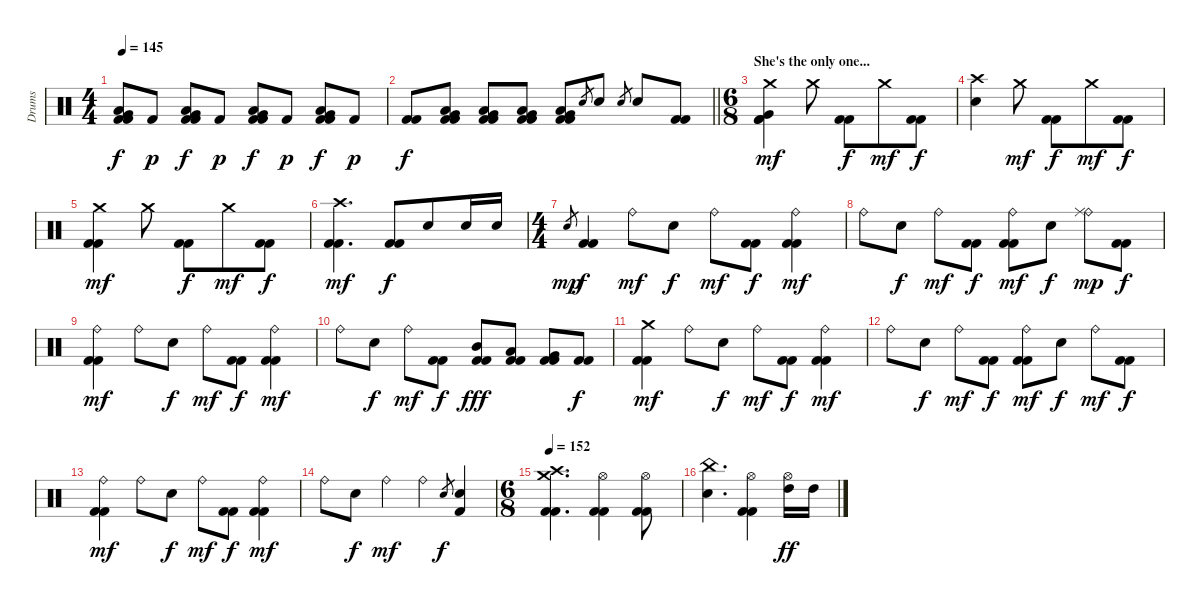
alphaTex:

\track ("Drums" "Drums") {instrument percussion}
\staff {score}
\articulation defaults
\ts (4 4)
\tempo 145
\clef neutral
\ks c
("Very Low Tom (hit)" "Low Floor Tom (hit)" "Kick (hit) 2" "Kick (hit) 2").8{dy f} "Kick (hit) 2".8{dy p} ("Very Low Tom (hit)" "Low Floor Tom (hit)" "Kick (hit) 2" "Kick (hit) 2").8{dy f} "Kick (hit) 2".8{dy p} ("Very Low Tom (hit)" "Low Floor Tom (hit)" "Kick (hit) 2" "Kick (hit) 2").8{dy f} "Kick (hit) 2".8{dy p} ("Very Low Tom (hit)" "Low Floor Tom (hit)" "Kick (hit) 2" "Kick (hit) 2").8{dy f} "Kick (hit) 2".8{dy p} |
\barLineRight lightlight
("Kick (hit) 2" "Kick (hit) 2").8{dy f} ("Very Low Tom (hit)" "Low Floor Tom (hit)" "Kick (hit) 2" "Kick (hit) 2").8 ("Very Low Tom (hit)" "Low Floor Tom (hit)" "Kick (hit) 2" "Kick (hit) 2").8 ("Very Low Tom (hit)" "Low Floor Tom (hit)" "Kick (hit) 2" "Kick (hit) 2").8 ("Very Low Tom (hit)" "Low Floor Tom (hit)" "Kick (hit) 2" "Kick (hit) 2").8 "Electric Snare (hit)".8{gr} "Electric Snare (hit)".8 "Electric Snare (hit)".8{gr} "Electric Snare (hit)".8 ("Kick (hit) 2" "Kick (hit) 2").8 |
\ts (6 8)
\section ("" "She's the only one...")
("Crash medium (hit)" "Very Low Tom (hit)" "Kick (hit) 2" "Kick (hit) 2").4{dy mf} "Crash medium (hit)".8 ("Kick (hit) 2" "Kick (hit) 2").8{dy f} "Crash medium (hit)".8{dy mf} ("Kick (hit) 2" "Kick (hit) 2").8{dy f} |
("Crash high (hit)" "Electric Snare (hit)").4 "Crash medium (hit)".8{dy mf} ("Kick (hit) 2" "Kick (hit) 2").8{dy f} "Crash medium (hit)".8{dy mf} ("Kick (hit) 2" "Kick (hit) 2").8{dy f} |
("Crash medium (hit)" "Kick (hit) 2" "Kick (hit) 2").4{dy mf} "Crash medium (hit)".8 ("Kick (hit) 2" "Kick (hit) 2").8{dy f} "Crash medium (hit)".8{dy mf} ("Kick (hit) 2" "Kick (hit) 2").8{dy f} |
("Crash high (hit)" "Kick (hit) 2" "Kick (hit) 2").4{d dy mf} ("Kick (hit) 2" "Kick (hit) 2").8{dy f} "Electric Snare (hit)".8 "Electric Snare (hit)".16 "Electric Snare (hit)".16 |
\ts (4 4)
"Electric Snare (hit)".8{gr dy mp} ("Kick (hit) 2" "Kick (hit) 2").4{dy f} "Ride (bell)".8{dy mf} "Electric Snare (hit)".8{dy f} "Ride (bell)".8{dy mf} ("Kick (hit) 2" "Kick (hit) 2").8{dy f} ("Ride (bell)" "Kick (hit) 2" "Kick (hit) 2").4{dy mf} |
"Ride (bell)".8 "Electric Snare (hit)".8{dy f} "Ride (bell)".8{dy mf} ("Kick (hit) 2" "Kick (hit) 2").8{dy f} ("Ride (bell)" "Kick (hit) 2" "Kick (hit) 2").8{dy mf} "Electric Snare (hit)".8{dy f} ("Ride (bell)" "Ride (middle)").8{dy mp} ("Kick (hit) 2" "Kick (hit) 2").8{dy f} |
("Ride (bell)" "Kick (hit) 2" "Kick (hit) 2").4{dy mf} "Ride (bell)".8 "Electric Snare (hit)".8{dy f} "Ride (bell)".8{dy mf} ("Kick (hit) 2" "Kick (hit) 2").8{dy f} ("Ride (bell)" "Kick (hit) 2" "Kick (hit) 2").4{dy mf} |
"Ride (bell)".8 "Electric Snare (hit)".8{dy f} "Ride (bell)".8{dy mf} ("Kick (hit) 2" "Kick (hit) 2").8{dy f} ("Mid Tom (hit)" "Kick (hit) 2" "Kick (hit) 2").8{dy fff} ("Low Tom (hit)" "Kick (hit) 2" "Kick (hit) 2").8 ("Very Low Tom (hit)" "Kick (hit) 2" "Kick (hit) 2").8 ("Kick (hit) 2" "Kick (hit) 2").8{dy f} |
("Crash medium (hit)" "Kick (hit) 2" "Kick (hit) 2").4{dy mf} "Ride (bell)".8 "Electric Snare (hit)".8{dy f} "Ride (bell)".8{dy mf} ("Kick (hit) 2" "Kick (hit) 2").8{dy f} ("Ride (bell)" "Kick (hit) 2" "Kick (hit) 2").4{dy mf} |
"Ride (bell)".8 "Electric Snare (hit)".8{dy f} "Ride (bell)".8{dy mf} ("Kick (hit) 2" "Kick (hit) 2").8{dy f} ("Ride (bell)" "Kick (hit) 2" "Kick (hit) 2").8{dy mf} "Electric Snare (hit)".8{dy f} "Ride (bell)".8{dy mf} ("Kick (hit) 2" "Kick (hit) 2").8{dy f} |
("Ride (bell)" "Kick (hit) 2" "Kick (hit) 2").4{dy mf} "Ride (bell)".8 "Electric Snare (hit)".8{dy f} "Ride (bell)".8{dy mf} ("Kick (hit) 2" "Kick (hit) 2").8{dy f} ("Ride (bell)" "Kick (hit) 2" "Kick (hit) 2").4{dy mf} |
"Ride (bell)".8 "Electric Snare (hit)".8{dy f} "Ride (bell)".4{dy mf} "Ride (bell)".4 "Electric Snare (hit)".8{gr dy f} ("Electric Snare (hit)" "Kick (hit) 2").4 |
\ts (6 8)
\tempo 152
("Crash medium (hit)" "Crash high (hit)" "Kick (hit) 2" "Kick (hit) 2").4{d} ("Hi-Hat (open)" "Kick (hit) 2" "Kick (hit) 2").4 ("Hi-Hat (open)" "Kick (hit) 2" "Kick (hit) 2").8 |
("China (hit)" "Electric Snare (hit)").4{d} ("Hi-Hat (open)" "Kick (hit) 2" "Kick (hit) 2").4 ("Hi-Hat (open)" "High Tom (hit)").16{dy ff} "High Tom (hit)".16
